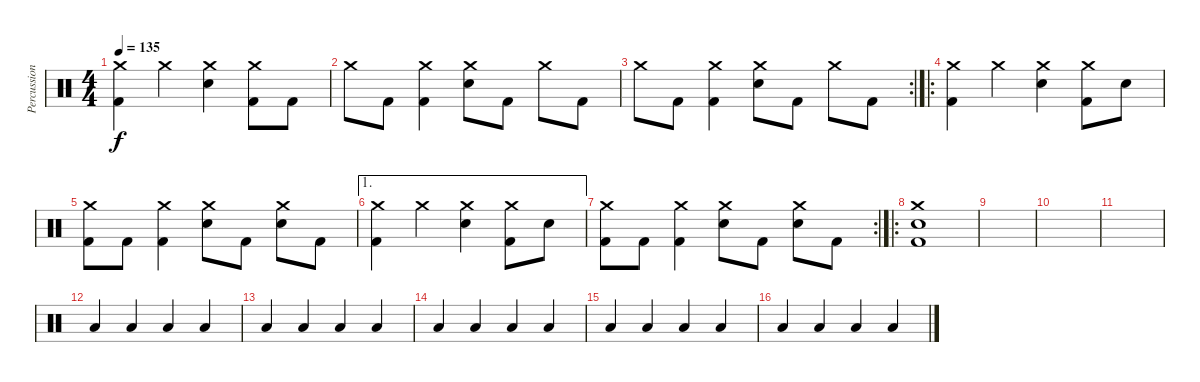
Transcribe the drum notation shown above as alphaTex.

\track ("Percussion" "Percussion") {instrument percussion}
\staff {score}
\articulation defaults
\ts (4 4)
\tempo 135
\clef neutral
\ks c
("Crash medium (hit)" "Kick (hit) 2").4{dy f} "Crash medium (hit)".4 ("Crash medium (hit)" "Electric Snare (hit)").4 ("Crash medium (hit)" "Kick (hit) 2").8 "Kick (hit) 2".8 |
"Crash medium (hit)".8 "Kick (hit) 2".8 ("Crash medium (hit)" "Kick (hit) 2").4 ("Crash medium (hit)" "Electric Snare (hit)").8 "Kick (hit) 2".8 "Crash medium (hit)".8 "Kick (hit) 2".8 |
\rc 2 "Crash medium (hit)".8 "Kick (hit) 2".8
("Crash medium (hit)" "Kick (hit) 2").4 ("Crash medium (hit)" "Electric Snare (hit)").8 "Kick (hit) 2".8 "Crash medium (hit)".8 "Kick (hit) 2".8 |
\ro
("Crash medium (hit)" "Kick (hit) 2").4 "Crash medium (hit)".4 ("Crash medium (hit)" "Electric Snare (hit)").4 ("Crash medium (hit)" "Kick (hit) 2").8 "Electric Snare (hit)".8 |
("Crash medium (hit)" "Kick (hit) 2").8 "Kick (hit) 2".8 ("Crash medium (hit)" "Kick (hit) 2").4 ("Crash medium (hit)" "Electric Snare (hit)").8 "Kick (hit) 2".8 ("Crash medium (hit)" "Electric Snare (hit)").8 "Kick (hit) 2".8 |
\ae 1
("Crash medium (hit)" "Kick (hit) 2").4 "Crash medium (hit)".4 ("Crash medium (hit)" "Electric Snare (hit)").4 ("Crash medium (hit)" "Kick (hit) 2").8 "Electric Snare (hit)".8 |
\rc 2
("Crash medium (hit)" "Kick (hit) 2").8 "Kick (hit) 2".8 ("Crash medium (hit)" "Kick (hit) 2").4 ("Crash medium (hit)" "Electric Snare (hit)").8 "Kick (hit) 2".8 ("Crash medium (hit)" "Electric Snare (hit)").8 "Kick (hit) 2".8 |
\ro
("Crash medium (hit)" "Electric Snare (hit)" "Kick (hit) 2").1 |
|
|
|
"Low Floor Tom (hit)".4 "Low Floor Tom (hit)".4 "Low Floor Tom (hit)".4 "Low Floor Tom (hit)".4 |
"Low Floor Tom (hit)".4 "Low Floor Tom (hit)".4 "Low Floor Tom (hit)".4 "Low Floor Tom (hit)".4 |
"Low Floor Tom (hit)".4 "Low Floor Tom (hit)".4 "Low Floor Tom (hit)".4 "Low Floor Tom (hit)".4 |
"Low Floor Tom (hit)".4 "Low Floor Tom (hit)".4 "Low Floor Tom (hit)".4 "Low Floor Tom (hit)".4 |
"Low Floor Tom (hit)".4 "Low Floor Tom (hit)".4 "Low Floor Tom (hit)".4 "Low Floor Tom (hit)".4
